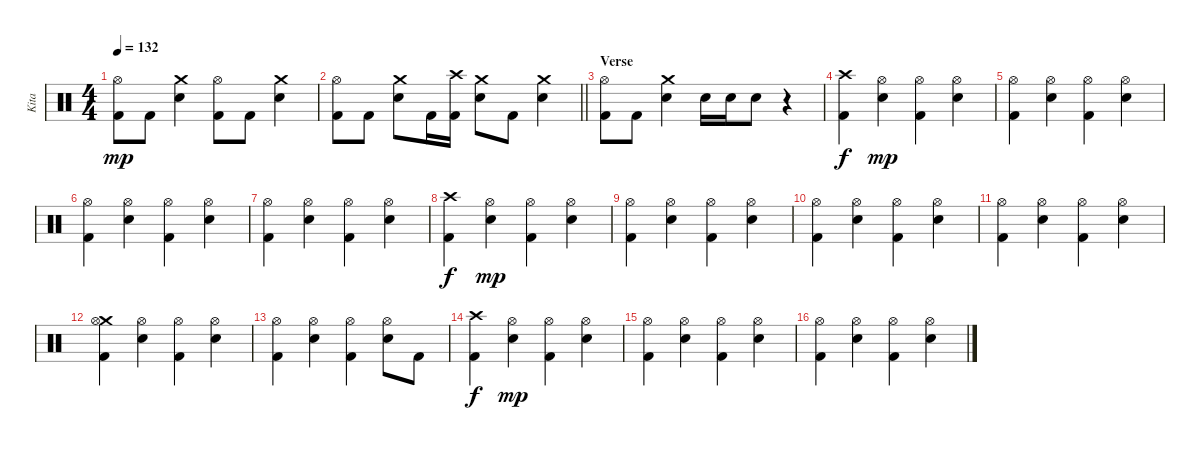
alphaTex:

\track ("Kita" "Kita") {instrument percussion}
\staff {score}
\articulation defaults
\ts (4 4)
\tempo 132
\clef neutral
\ks c
("Hi-Hat (open)" "Kick (hit) 2").8{dy mp} "Kick (hit) 2".8 ("Crash medium (hit)" "Snare (hit) 2").4 ("Hi-Hat (open)" "Kick (hit) 2").8 "Kick (hit) 2".8 ("Crash medium (hit)" "Snare (hit) 2").4 |
\barLineRight lightlight
("Hi-Hat (open)" "Kick (hit) 2").8 "Kick (hit) 2".8 ("Crash medium (hit)" "Snare (hit) 2").8 "Kick (hit) 2".16 ("Crash high (hit)" "Kick (hit) 2").16 ("Crash medium (hit)" "Snare (hit) 2").8 "Kick (hit) 2".8 ("Crash medium (hit)" "Snare (hit) 2").4 |
\section ("" "Verse")
("Hi-Hat (open)" "Kick (hit) 2").8 "Kick (hit) 2".8 ("Crash medium (hit)" "Snare (hit) 2").4 "Snare (hit) 2".16 "Snare (hit) 2".16 "Snare (hit) 2".8 r.4 |
("Crash high (hit)" "Kick (hit) 2").4{dy f} ("Hi-Hat (open)" "Snare (hit) 2").4{dy mp} ("Hi-Hat (open)" "Kick (hit) 2").4 ("Hi-Hat (open)" "Snare (hit) 2").4 |
("Hi-Hat (open)" "Kick (hit) 2").4 ("Hi-Hat (open)" "Snare (hit) 2").4 ("Hi-Hat (open)" "Kick (hit) 2").4 ("Hi-Hat (open)" "Snare (hit) 2").4 |
("Hi-Hat (open)" "Kick (hit) 2").4 ("Hi-Hat (open)" "Snare (hit) 2").4 ("Hi-Hat (open)" "Kick (hit) 2").4 ("Hi-Hat (open)" "Snare (hit) 2").4 |
("Hi-Hat (open)" "Kick (hit) 2").4 ("Hi-Hat (open)" "Snare (hit) 2").4 ("Hi-Hat (open)" "Kick (hit) 2").4 ("Hi-Hat (open)" "Snare (hit) 2").4 |
("Crash high (hit)" "Kick (hit) 2").4{dy f} ("Hi-Hat (open)" "Snare (hit) 2").4{dy mp} ("Hi-Hat (open)" "Kick (hit) 2").4 ("Hi-Hat (open)" "Snare (hit) 2").4 |
("Hi-Hat (open)" "Kick (hit) 2").4 ("Hi-Hat (open)" "Snare (hit) 2").4 ("Hi-Hat (open)" "Kick (hit) 2").4 ("Hi-Hat (open)" "Snare (hit) 2").4 |
("Hi-Hat (open)" "Kick (hit) 2").4 ("Hi-Hat (open)" "Snare (hit) 2").4 ("Hi-Hat (open)" "Kick (hit) 2").4 ("Hi-Hat (open)" "Snare (hit) 2").4 |
("Hi-Hat (open)" "Kick (hit) 2").4 ("Hi-Hat (open)" "Snare (hit) 2").4 ("Hi-Hat (open)" "Kick (hit) 2").4 ("Hi-Hat (open)" "Snare (hit) 2").4 |
("Crash medium (hit)" "Hi-Hat (open)" "Kick (hit) 2").4 ("Hi-Hat (open)" "Snare (hit) 2").4 ("Hi-Hat (open)" "Kick (hit) 2").4 ("Hi-Hat (open)" "Snare (hit) 2").4 |
("Hi-Hat (open)" "Kick (hit) 2").4 ("Hi-Hat (open)" "Snare (hit) 2").4 ("Hi-Hat (open)" "Kick (hit) 2").4 ("Hi-Hat (open)" "Snare (hit) 2").8 "Kick (hit) 2".8 |
("Crash high (hit)" "Kick (hit) 2").4{dy f} ("Hi-Hat (open)" "Snare (hit) 2").4{dy mp} ("Hi-Hat (open)" "Kick (hit) 2").4 ("Hi-Hat (open)" "Snare (hit) 2").4 |
("Hi-Hat (open)" "Kick (hit) 2").4 ("Hi-Hat (open)" "Snare (hit) 2").4 ("Hi-Hat (open)" "Kick (hit) 2").4 ("Hi-Hat (open)" "Snare (hit) 2").4 |
("Hi-Hat (open)" "Kick (hit) 2").4 ("Hi-Hat (open)" "Snare (hit) 2").4 ("Hi-Hat (open)" "Kick (hit) 2").4 ("Hi-Hat (open)" "Snare (hit) 2").4
